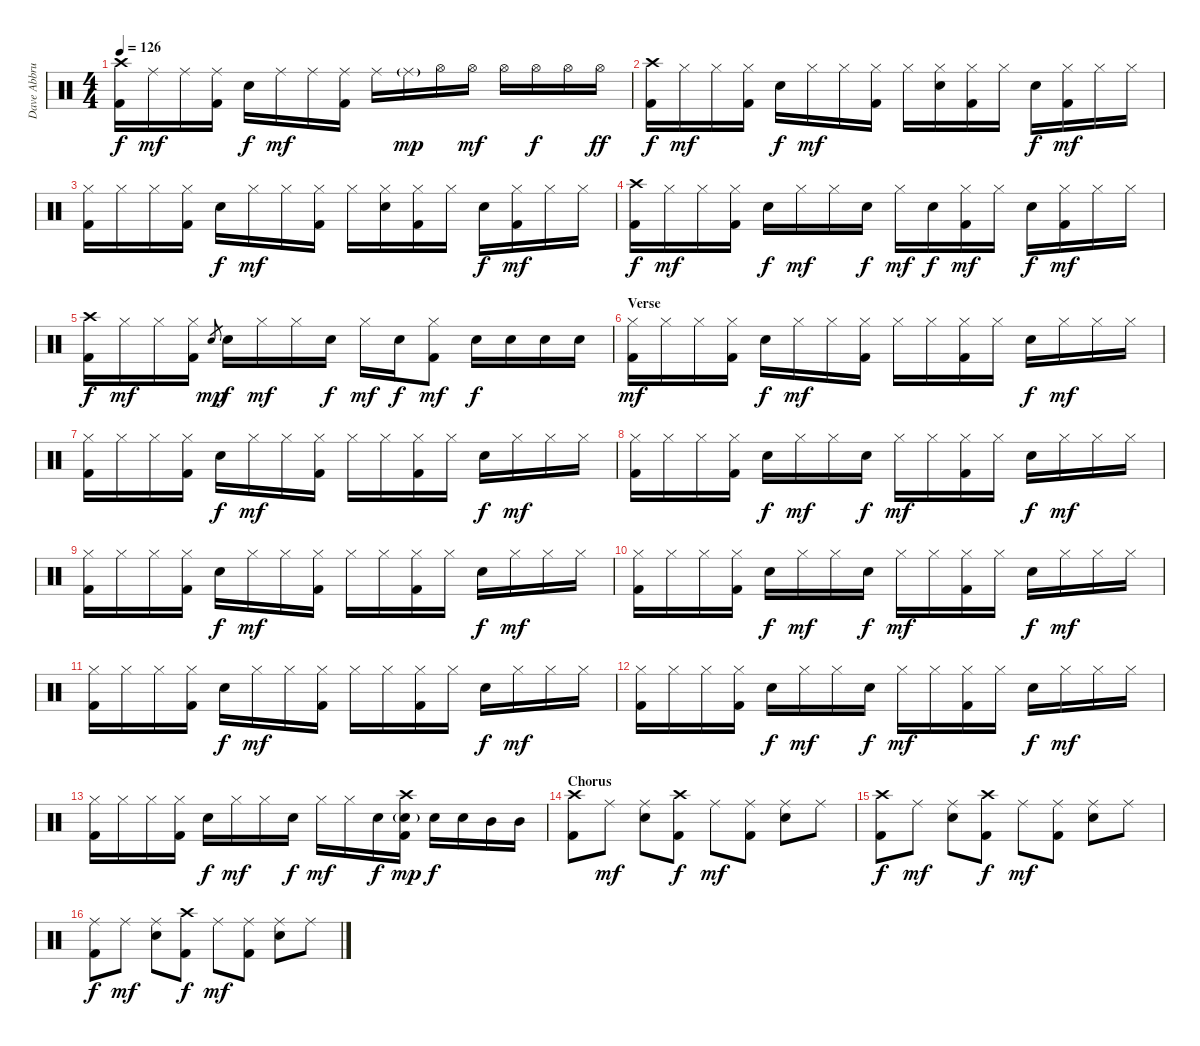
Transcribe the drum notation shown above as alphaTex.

\track ("Dave Abbruze - Drums" "Dave Abbru") {instrument percussion}
\staff {score}
\articulation defaults
\ts (4 4)
\tempo 126
\clef neutral
\ks c
("Crash high (hit)" "Kick (hit) 2").16{dy f} "Ride (middle)".16{dy mf} "Ride (middle)".16 ("Ride (middle)" "Kick (hit) 2").16 "Electric Snare (hit)".16{dy f} "Ride (middle)".16{dy mf} "Ride (middle)".16 ("Ride (middle)" "Kick (hit) 2").16 "Ride (middle)".16 "Ride (middle)"{g}.16{dy mp} "Hi-Hat (open)".16 "Hi-Hat (open)".16{dy mf} "Hi-Hat (open)".16 "Hi-Hat (open)".16{dy f} "Hi-Hat (open)".16 "Hi-Hat (open)".16{dy ff} |
("Crash high (hit)" "Kick (hit) 2").16{dy f} "Hi-Hat (closed)".16{dy mf} "Hi-Hat (closed)".16 ("Hi-Hat (closed)" "Kick (hit) 2").16 "Electric Snare (hit)".16{dy f} "Hi-Hat (closed)".16{dy mf} "Hi-Hat (closed)".16 ("Hi-Hat (closed)" "Kick (hit) 2").16 "Hi-Hat (closed)".16 ("Hi-Hat (closed)" "Electric Snare (hit)").16 ("Hi-Hat (closed)" "Kick (hit) 2").16 "Hi-Hat (closed)".16 "Electric Snare (hit)".16{dy f} ("Hi-Hat (closed)" "Kick (hit) 2").16{dy mf} "Hi-Hat (closed)".16 "Hi-Hat (closed)".16 |
("Hi-Hat (closed)" "Kick (hit) 2").16 "Hi-Hat (closed)".16 "Hi-Hat (closed)".16 ("Hi-Hat (closed)" "Kick (hit) 2").16 "Electric Snare (hit)".16{dy f} "Hi-Hat (closed)".16{dy mf} "Hi-Hat (closed)".16 ("Hi-Hat (closed)" "Kick (hit) 2").16 "Hi-Hat (closed)".16 ("Hi-Hat (closed)" "Electric Snare (hit)").16 ("Hi-Hat (closed)" "Kick (hit) 2").16 "Hi-Hat (closed)".16 "Electric Snare (hit)".16{dy f} ("Hi-Hat (closed)" "Kick (hit) 2").16{dy mf} "Hi-Hat (closed)".16 "Hi-Hat (closed)".16 |
("Crash high (hit)" "Kick (hit) 2").16{dy f} "Hi-Hat (closed)".16{dy mf} "Hi-Hat (closed)".16 ("Hi-Hat (closed)" "Kick (hit) 2").16 "Electric Snare (hit)".16{dy f} "Hi-Hat (closed)".16{dy mf} "Hi-Hat (closed)".16 "Electric Snare (hit)".16{dy f} "Hi-Hat (closed)".16{dy mf} "Electric Snare (hit)".16{dy f} ("Hi-Hat (closed)" "Kick (hit) 2").16{dy mf} "Hi-Hat (closed)".16 "Electric Snare (hit)".16{dy f} ("Hi-Hat (closed)" "Kick (hit) 2").16{dy mf} "Hi-Hat (closed)".16 "Hi-Hat (closed)".16 |
("Crash high (hit)" "Kick (hit) 2").16{dy f} "Hi-Hat (closed)".16{dy mf} "Hi-Hat (closed)".16 ("Hi-Hat (closed)" "Kick (hit) 2").16 "Electric Snare (hit)".8{gr dy mp} "Electric Snare (hit)".16{dy f} "Hi-Hat (closed)".16{dy mf} "Hi-Hat (closed)".16 "Electric Snare (hit)".16{dy f} "Hi-Hat (closed)".16{dy mf} "Electric Snare (hit)".16{dy f} ("Hi-Hat (closed)" "Kick (hit) 2").8{dy mf} "Electric Snare (hit)".16{dy f} "Electric Snare (hit)".16 "Electric Snare (hit)".16 "Electric Snare (hit)".16 |
\section ("" "Verse")
("Hi-Hat (closed)" "Kick (hit) 2").16{dy mf} "Hi-Hat (closed)".16 "Hi-Hat (closed)".16 ("Hi-Hat (closed)" "Kick (hit) 2").16 "Electric Snare (hit)".16{dy f} "Hi-Hat (closed)".16{dy mf} "Hi-Hat (closed)".16 ("Hi-Hat (closed)" "Kick (hit) 2").16 "Hi-Hat (closed)".16 "Hi-Hat (closed)".16 ("Hi-Hat (closed)" "Kick (hit) 2").16 "Hi-Hat (closed)".16 "Electric Snare (hit)".16{dy f} "Hi-Hat (closed)".16{dy mf} "Hi-Hat (closed)".16 "Hi-Hat (closed)".16 |
("Hi-Hat (closed)" "Kick (hit) 2").16 "Hi-Hat (closed)".16 "Hi-Hat (closed)".16 ("Hi-Hat (closed)" "Kick (hit) 2").16 "Electric Snare (hit)".16{dy f} "Hi-Hat (closed)".16{dy mf} "Hi-Hat (closed)".16 ("Hi-Hat (closed)" "Kick (hit) 2").16 "Hi-Hat (closed)".16 "Hi-Hat (closed)".16 ("Hi-Hat (closed)" "Kick (hit) 2").16 "Hi-Hat (closed)".16 "Electric Snare (hit)".16{dy f} "Hi-Hat (closed)".16{dy mf} "Hi-Hat (closed)".16 "Hi-Hat (closed)".16 |
("Hi-Hat (closed)" "Kick (hit) 2").16 "Hi-Hat (closed)".16 "Hi-Hat (closed)".16 ("Hi-Hat (closed)" "Kick (hit) 2").16 "Electric Snare (hit)".16{dy f} "Hi-Hat (closed)".16{dy mf} "Hi-Hat (closed)".16 "Electric Snare (hit)".16{dy f} "Hi-Hat (closed)".16{dy mf} "Hi-Hat (closed)".16 ("Hi-Hat (closed)" "Kick (hit) 2").16 "Hi-Hat (closed)".16 "Electric Snare (hit)".16{dy f} "Hi-Hat (closed)".16{dy mf} "Hi-Hat (closed)".16 "Hi-Hat (closed)".16 |
("Hi-Hat (closed)" "Kick (hit) 2").16 "Hi-Hat (closed)".16 "Hi-Hat (closed)".16 ("Hi-Hat (closed)" "Kick (hit) 2").16 "Electric Snare (hit)".16{dy f} "Hi-Hat (closed)".16{dy mf} "Hi-Hat (closed)".16 ("Hi-Hat (closed)" "Kick (hit) 2").16 "Hi-Hat (closed)".16 "Hi-Hat (closed)".16 ("Hi-Hat (closed)" "Kick (hit) 2").16 "Hi-Hat (closed)".16 "Electric Snare (hit)".16{dy f} "Hi-Hat (closed)".16{dy mf} "Hi-Hat (closed)".16 "Hi-Hat (closed)".16 |
("Hi-Hat (closed)" "Kick (hit) 2").16 "Hi-Hat (closed)".16 "Hi-Hat (closed)".16 ("Hi-Hat (closed)" "Kick (hit) 2").16 "Electric Snare (hit)".16{dy f} "Hi-Hat (closed)".16{dy mf} "Hi-Hat (closed)".16 "Electric Snare (hit)".16{dy f} "Hi-Hat (closed)".16{dy mf} "Hi-Hat (closed)".16 ("Hi-Hat (closed)" "Kick (hit) 2").16 "Hi-Hat (closed)".16 "Electric Snare (hit)".16{dy f} "Hi-Hat (closed)".16{dy mf} "Hi-Hat (closed)".16 "Hi-Hat (closed)".16 |
("Hi-Hat (closed)" "Kick (hit) 2").16 "Hi-Hat (closed)".16 "Hi-Hat (closed)".16 ("Hi-Hat (closed)" "Kick (hit) 2").16 "Electric Snare (hit)".16{dy f} "Hi-Hat (closed)".16{dy mf} "Hi-Hat (closed)".16 ("Hi-Hat (closed)" "Kick (hit) 2").16 "Hi-Hat (closed)".16 "Hi-Hat (closed)".16 ("Hi-Hat (closed)" "Kick (hit) 2").16 "Hi-Hat (closed)".16 "Electric Snare (hit)".16{dy f} "Hi-Hat (closed)".16{dy mf} "Hi-Hat (closed)".16 "Hi-Hat (closed)".16 |
("Hi-Hat (closed)" "Kick (hit) 2").16 "Hi-Hat (closed)".16 "Hi-Hat (closed)".16 ("Hi-Hat (closed)" "Kick (hit) 2").16 "Electric Snare (hit)".16{dy f} "Hi-Hat (closed)".16{dy mf} "Hi-Hat (closed)".16 "Electric Snare (hit)".16{dy f} "Hi-Hat (closed)".16{dy mf} "Hi-Hat (closed)".16 ("Hi-Hat (closed)" "Kick (hit) 2").16 "Hi-Hat (closed)".16 "Electric Snare (hit)".16{dy f} "Hi-Hat (closed)".16{dy mf} "Hi-Hat (closed)".16 "Hi-Hat (closed)".16 |
("Hi-Hat (closed)" "Kick (hit) 2").16 "Hi-Hat (closed)".16 "Hi-Hat (closed)".16 ("Hi-Hat (closed)" "Kick (hit) 2").16 "Electric Snare (hit)".16{dy f} "Hi-Hat (closed)".16{dy mf} "Hi-Hat (closed)".16 "Electric Snare (hit)".16{dy f} "Hi-Hat (closed)".16{dy mf} "Hi-Hat (closed)".16 "Electric Snare (hit)".16{dy f} ("Crash high (hit)" "Electric Snare (hit)"{g} "Kick (hit) 2").16{dy mp} "Electric Snare (hit)".16{dy f} "Electric Snare (hit)".16 "Mid Tom (hit)".16 "Mid Tom (hit)".16 |
\section ("" "Chorus")
("Crash high (hit)" "Kick (hit) 2").8 "Ride (middle)".8{dy mf} ("Ride (middle)" "Electric Snare (hit)").8 ("Crash high (hit)" "Kick (hit) 2").8{dy f} "Ride (middle)".8{dy mf} ("Ride (middle)" "Kick (hit) 2").8 ("Ride (middle)" "Electric Snare (hit)").8 "Ride (middle)".8 |
("Crash high (hit)" "Kick (hit) 2").8{dy f} "Ride (middle)".8{dy mf} ("Ride (middle)" "Electric Snare (hit)").8 ("Crash high (hit)" "Kick (hit) 2").8{dy f} "Ride (middle)".8{dy mf} ("Ride (middle)" "Kick (hit) 2").8 ("Ride (middle)" "Electric Snare (hit)").8 "Ride (middle)".8 |
("Ride (middle)" "Kick (hit) 2").8{dy f} "Ride (middle)".8{dy mf} ("Ride (middle)" "Electric Snare (hit)").8 ("Crash high (hit)" "Kick (hit) 2").8{dy f} "Ride (middle)".8{dy mf} ("Ride (middle)" "Kick (hit) 2").8 ("Ride (middle)" "Electric Snare (hit)").8 "Ride (middle)".8
